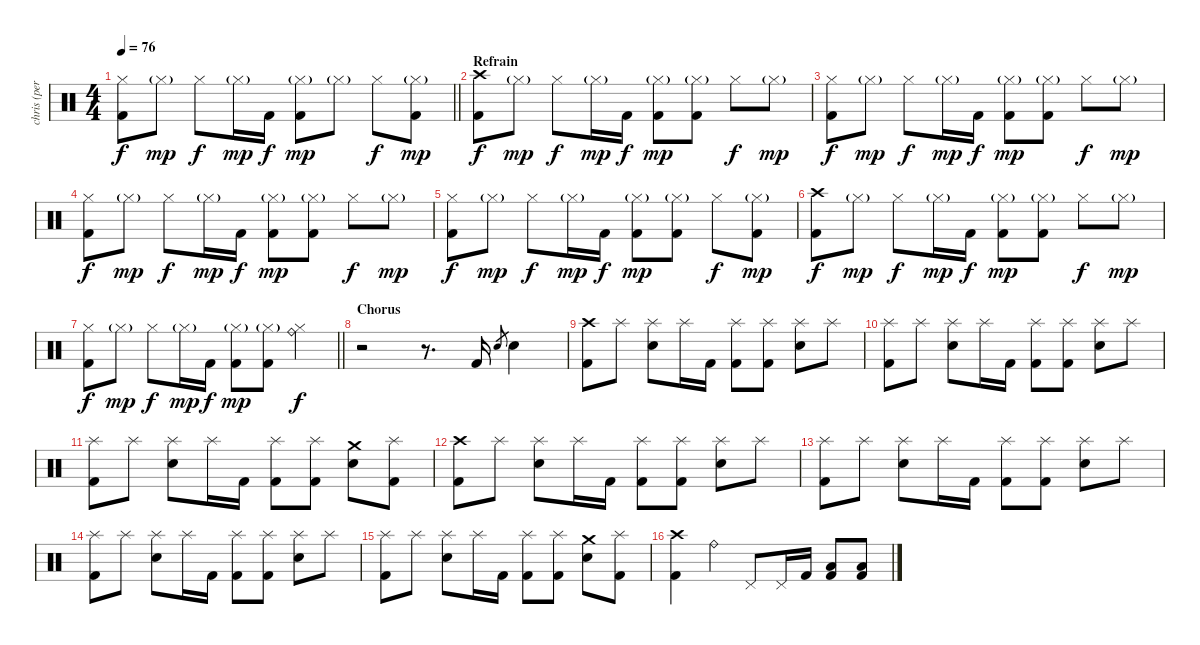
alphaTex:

\track ("chris (percussion)" "chris (per") {instrument percussion}
\staff {score}
\articulation defaults
\ts (4 4)
\tempo 76
\clef neutral
\barLineRight lightlight
\ks c
("Hi-Hat (closed)" "Kick (hit) 2").8{dy f} "Hi-Hat (closed)"{g}.8{dy mp} "Hi-Hat (closed)".8{dy f} "Hi-Hat (closed)"{g}.16{dy mp} "Kick (hit) 2".16{dy f} ("Hi-Hat (closed)"{g} "Kick (hit) 2").8{dy mp} "Hi-Hat (closed)"{g}.8 "Hi-Hat (closed)".8{dy f} ("Hi-Hat (closed)"{g} "Kick (hit) 2").8{dy mp} |
\section ("" "Refrain")
("Crash high (hit)" "Kick (hit) 2").8{dy f} "Hi-Hat (closed)"{g}.8{dy mp} "Hi-Hat (closed)".8{dy f} "Hi-Hat (closed)"{g}.16{dy mp} "Kick (hit) 2".16{dy f} ("Hi-Hat (closed)"{g} "Kick (hit) 2").8{dy mp} ("Hi-Hat (closed)"{g} "Kick (hit) 2").8 "Hi-Hat (closed)".8{dy f} "Hi-Hat (closed)"{g}.8{dy mp} |
("Hi-Hat (closed)" "Kick (hit) 2").8{dy f} "Hi-Hat (closed)"{g}.8{dy mp} "Hi-Hat (closed)".8{dy f} "Hi-Hat (closed)"{g}.16{dy mp} "Kick (hit) 2".16{dy f} ("Hi-Hat (closed)"{g} "Kick (hit) 2").8{dy mp} ("Hi-Hat (closed)"{g} "Kick (hit) 2").8 "Hi-Hat (closed)".8{dy f} "Hi-Hat (closed)"{g}.8{dy mp} |
("Hi-Hat (closed)" "Kick (hit) 2").8{dy f} "Hi-Hat (closed)"{g}.8{dy mp} "Hi-Hat (closed)".8{dy f} "Hi-Hat (closed)"{g}.16{dy mp} "Kick (hit) 2".16{dy f} ("Hi-Hat (closed)"{g} "Kick (hit) 2").8{dy mp} ("Hi-Hat (closed)"{g} "Kick (hit) 2").8 "Hi-Hat (closed)".8{dy f} "Hi-Hat (closed)"{g}.8{dy mp} |
("Hi-Hat (closed)" "Kick (hit) 2").8{dy f} "Hi-Hat (closed)"{g}.8{dy mp} "Hi-Hat (closed)".8{dy f} "Hi-Hat (closed)"{g}.16{dy mp} "Kick (hit) 2".16{dy f} ("Hi-Hat (closed)"{g} "Kick (hit) 2").8{dy mp} ("Hi-Hat (closed)"{g} "Kick (hit) 2").8 "Hi-Hat (closed)".8{dy f} ("Hi-Hat (closed)"{g} "Kick (hit) 2").8{dy mp} |
("Crash high (hit)" "Kick (hit) 2").8{dy f} "Hi-Hat (closed)"{g}.8{dy mp} "Hi-Hat (closed)".8{dy f} "Hi-Hat (closed)"{g}.16{dy mp} "Kick (hit) 2".16{dy f} ("Hi-Hat (closed)"{g} "Kick (hit) 2").8{dy mp} ("Hi-Hat (closed)"{g} "Kick (hit) 2").8 "Hi-Hat (closed)".8{dy f} "Hi-Hat (closed)"{g}.8{dy mp} |
\barLineRight lightlight
("Hi-Hat (closed)" "Kick (hit) 2").8{dy f} "Hi-Hat (closed)"{g}.8{dy mp} "Hi-Hat (closed)".8{dy f} "Hi-Hat (closed)"{g}.16{dy mp} "Kick (hit) 2".16{dy f} ("Hi-Hat (closed)"{g} "Kick (hit) 2").8{dy mp} ("Hi-Hat (closed)"{g} "Kick (hit) 2").8 ("Ride (bell)" "Hi-Hat (closed)").4{dy f} |
\section ("" "Chorus")
r.2 r.8{d} "Kick (hit) 2".16 "Electric Snare (hit)".8{gr} "Electric Snare (hit)".4 |
("Crash high (hit)" "Kick (hit) 2").8 "Splash (hit)".8 ("Splash (hit)" "Electric Snare (hit)").8 "Splash (hit)".16 "Kick (hit) 2".16 ("Splash (hit)" "Kick (hit) 2").8 ("Splash (hit)" "Kick (hit) 2").8 ("Electric Snare (hit)" "Splash (hit)").8 "Splash (hit)".8 |
("Splash (hit)" "Kick (hit) 2").8 "Splash (hit)".8 ("Splash (hit)" "Electric Snare (hit)").8 "Splash (hit)".16 "Kick (hit) 2".16 ("Splash (hit)" "Kick (hit) 2").8 ("Splash (hit)" "Kick (hit) 2").8 ("Electric Snare (hit)" "Splash (hit)").8 "Splash (hit)".8 |
("Splash (hit)" "Kick (hit) 2").8 "Splash (hit)".8 ("Splash (hit)" "Electric Snare (hit)").8 "Splash (hit)".16 "Kick (hit) 2".16 ("Splash (hit)" "Kick (hit) 2").8 ("Splash (hit)" "Kick (hit) 2").8 ("Electric Snare (hit)" "Crash medium (hit)").8 ("Splash (hit)" "Kick (hit) 2").8 |
("Crash high (hit)" "Kick (hit) 2").8 "Splash (hit)".8 ("Splash (hit)" "Electric Snare (hit)").8 "Splash (hit)".16 "Kick (hit) 2".16 ("Splash (hit)" "Kick (hit) 2").8 ("Splash (hit)" "Kick (hit) 2").8 ("Electric Snare (hit)" "Splash (hit)").8 "Splash (hit)".8 |
("Splash (hit)" "Kick (hit) 2").8 "Splash (hit)".8 ("Splash (hit)" "Electric Snare (hit)").8 "Splash (hit)".16 "Kick (hit) 2".16 ("Splash (hit)" "Kick (hit) 2").8 ("Splash (hit)" "Kick (hit) 2").8 ("Electric Snare (hit)" "Splash (hit)").8 "Splash (hit)".8 |
("Splash (hit)" "Kick (hit) 2").8 "Splash (hit)".8 ("Splash (hit)" "Electric Snare (hit)").8 "Splash (hit)".16 "Kick (hit) 2".16 ("Splash (hit)" "Kick (hit) 2").8 ("Splash (hit)" "Kick (hit) 2").8 ("Electric Snare (hit)" "Splash (hit)").8 "Splash (hit)".8 |
("Splash (hit)" "Kick (hit) 2").8 "Splash (hit)".8 ("Splash (hit)" "Electric Snare (hit)").8 "Splash (hit)".16 "Kick (hit) 2".16 ("Splash (hit)" "Kick (hit) 2").8 ("Splash (hit)" "Kick (hit) 2").8 ("Electric Snare (hit)" "Crash medium (hit)").8 ("Splash (hit)" "Kick (hit) 2").8 |
("Crash high (hit)" "Kick (hit) 2").4 "Ride (bell)".4 "Pedal Hi-Hat (hit)".8 "Pedal Hi-Hat (hit)".16 "Kick (hit) 2".16 ("Low Floor Tom (hit)" "Kick (hit) 2").8 ("Low Floor Tom (hit)" "Kick (hit) 2").8
